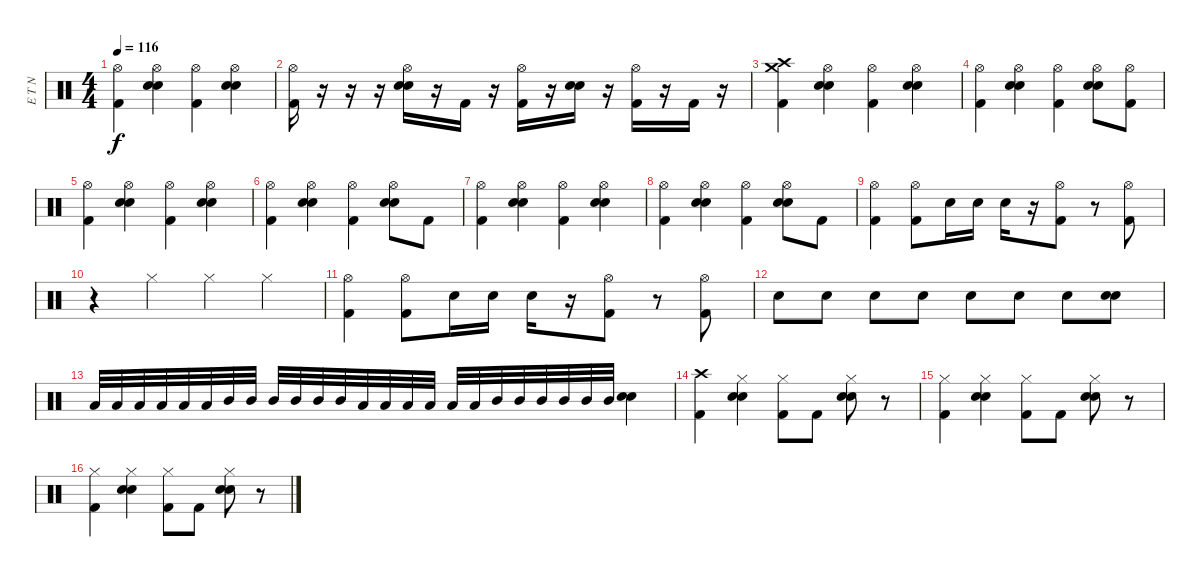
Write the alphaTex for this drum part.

\track ("E T N" "E T N") {instrument percussion}
\staff {score}
\articulation defaults
\ts (4 4)
\tempo 116
\clef neutral
\ks c
("Hi-Hat (open)" "Kick (hit) 2").4{dy f} ("Hi-Hat (open)" "Electric Snare (hit)" "Electric Snare (hit)").4 ("Hi-Hat (open)" "Kick (hit) 2").4 ("Hi-Hat (open)" "Electric Snare (hit)" "Electric Snare (hit)").4 |
("Hi-Hat (open)" "Kick (hit) 2").16 r.16 r.16 r.16 ("Hi-Hat (open)" "Electric Snare (hit)" "Electric Snare (hit)").16 r.16 "Kick (hit) 2".16 r.16 ("Hi-Hat (open)" "Kick (hit) 2").16 r.16 ("Electric Snare (hit)" "Electric Snare (hit)").16 r.16 ("Hi-Hat (open)" "Kick (hit) 2").16 r.16 "Kick (hit) 2".16 r.16 |
("Crash high (hit)" "Crash medium (hit)" "Kick (hit) 2").4 ("Hi-Hat (open)" "Electric Snare (hit)" "Electric Snare (hit)").4 ("Hi-Hat (open)" "Kick (hit) 2").4 ("Hi-Hat (open)" "Electric Snare (hit)" "Electric Snare (hit)").4 |
("Hi-Hat (open)" "Kick (hit) 2").4 ("Hi-Hat (open)" "Electric Snare (hit)" "Electric Snare (hit)").4 ("Hi-Hat (open)" "Kick (hit) 2").4 ("Hi-Hat (open)" "Electric Snare (hit)" "Electric Snare (hit)").8 ("Hi-Hat (open)" "Kick (hit) 2").8 |
("Hi-Hat (open)" "Kick (hit) 2").4 ("Hi-Hat (open)" "Electric Snare (hit)" "Electric Snare (hit)").4 ("Hi-Hat (open)" "Kick (hit) 2").4 ("Hi-Hat (open)" "Electric Snare (hit)" "Electric Snare (hit)").4 |
("Hi-Hat (open)" "Kick (hit) 2").4 ("Hi-Hat (open)" "Electric Snare (hit)" "Electric Snare (hit)").4 ("Hi-Hat (open)" "Kick (hit) 2").4 ("Hi-Hat (open)" "Electric Snare (hit)" "Electric Snare (hit)").8 "Kick (hit) 2".8 |
("Hi-Hat (open)" "Kick (hit) 2").4 ("Hi-Hat (open)" "Electric Snare (hit)" "Electric Snare (hit)").4 ("Hi-Hat (open)" "Kick (hit) 2").4 ("Hi-Hat (open)" "Electric Snare (hit)" "Electric Snare (hit)").4 |
("Hi-Hat (open)" "Kick (hit) 2").4 ("Hi-Hat (open)" "Electric Snare (hit)" "Electric Snare (hit)").4 ("Hi-Hat (open)" "Kick (hit) 2").4 ("Hi-Hat (open)" "Electric Snare (hit)" "Electric Snare (hit)").8 "Kick (hit) 2".8 |
("Hi-Hat (open)" "Kick (hit) 2").4 ("Hi-Hat (open)" "Kick (hit) 2").8 "Electric Snare (hit)".16 "Electric Snare (hit)".16 "Electric Snare (hit)".16 r.16 ("Hi-Hat (open)" "Kick (hit) 2").8 r.8 ("Hi-Hat (open)" "Kick (hit) 2").8 |
r.4 "Hi-Hat (closed)".4 "Hi-Hat (closed)".4 "Hi-Hat (closed)".4 |
("Hi-Hat (open)" "Kick (hit) 2").4 ("Hi-Hat (open)" "Kick (hit) 2").8 "Electric Snare (hit)".16 "Electric Snare (hit)".16 "Electric Snare (hit)".16 r.16 ("Hi-Hat (open)" "Kick (hit) 2").8 r.8 ("Hi-Hat (open)" "Kick (hit) 2").8 |
"Electric Snare (hit)".8 "Electric Snare (hit)".8 "Electric Snare (hit)".8 "Electric Snare (hit)".8 "Electric Snare (hit)".8 "Electric Snare (hit)".8 "Electric Snare (hit)".8 ("Electric Snare (hit)" "Electric Snare (hit)").8 |
"Low Tom (hit)".32 "Low Tom (hit)".32 "Low Tom (hit)".32 "Low Tom (hit)".32 "Low Tom (hit)".32 "Low Tom (hit)".32 "Mid Tom (hit)".32 "Mid Tom (hit)".32 "Mid Tom (hit)".32 "Mid Tom (hit)".32 "Mid Tom (hit)".32 "Mid Tom (hit)".32 "Low Tom (hit)".32 "Low Tom (hit)".32 "Low Tom (hit)".32 "Low Tom (hit)".32 "Low Tom (hit)".32 "Low Tom (hit)".32 "Mid Tom (hit)".32 "Mid Tom (hit)".32 "Mid Tom (hit)".32 "Mid Tom (hit)".32 "Mid Tom (hit)".32 "Mid Tom (hit)".32 ("Electric Snare (hit)" "Electric Snare (hit)").4 |
("Crash high (hit)" "Kick (hit) 2").4 ("Hi-Hat (closed)" "Electric Snare (hit)" "Electric Snare (hit)").4 ("Hi-Hat (closed)" "Kick (hit) 2").8 "Kick (hit) 2".8 ("Hi-Hat (closed)" "Electric Snare (hit)" "Electric Snare (hit)").8 r.8 |
("Hi-Hat (closed)" "Kick (hit) 2").4 ("Hi-Hat (closed)" "Electric Snare (hit)" "Electric Snare (hit)").4 ("Hi-Hat (closed)" "Kick (hit) 2").8 "Kick (hit) 2".8 ("Hi-Hat (closed)" "Electric Snare (hit)" "Electric Snare (hit)").8 r.8 |
("Hi-Hat (closed)" "Kick (hit) 2").4 ("Hi-Hat (closed)" "Electric Snare (hit)" "Electric Snare (hit)").4 ("Hi-Hat (closed)" "Kick (hit) 2").8 "Kick (hit) 2".8 ("Hi-Hat (closed)" "Electric Snare (hit)" "Electric Snare (hit)").8 r.8
